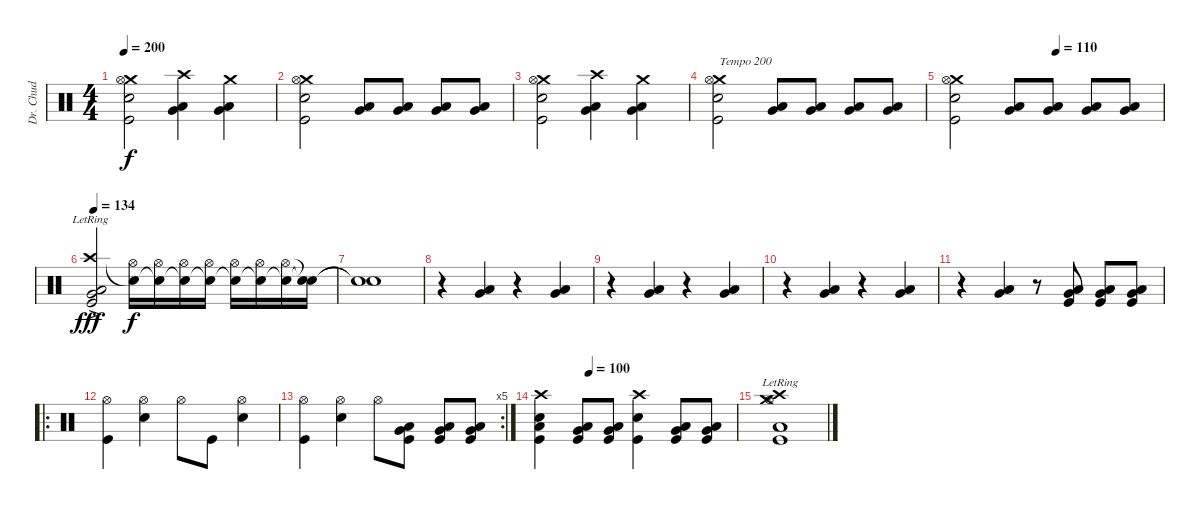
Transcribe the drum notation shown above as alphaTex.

\track ("Dr. Chud" "Dr. Chud") {instrument percussion}
\staff {score}
\articulation defaults
\ts (4 4)
\tempo 200
\clef neutral
\ks c
("Crash medium (hit)" "Hi-Hat (open)" "Snare (hit) 2" "Kick (hit)").2{dy f} ("Crash high (hit)" "Very Low Tom (hit)" "Low Floor Tom (hit)").4 ("Crash medium (hit)" "Very Low Tom (hit)" "Low Floor Tom (hit)").4 |
("Crash medium (hit)" "Hi-Hat (open)" "Snare (hit) 2" "Kick (hit)").2 ("Very Low Tom (hit)" "Low Floor Tom (hit)").8 ("Very Low Tom (hit)" "Low Floor Tom (hit)").8 ("Very Low Tom (hit)" "Low Floor Tom (hit)").8 ("Very Low Tom (hit)" "Low Floor Tom (hit)").8 |
("Crash medium (hit)" "Hi-Hat (open)" "Snare (hit) 2" "Kick (hit)").2 ("Crash high (hit)" "Very Low Tom (hit)" "Low Floor Tom (hit)").4 ("Crash medium (hit)" "Very Low Tom (hit)" "Low Floor Tom (hit)").4 |
("Crash medium (hit)" "Hi-Hat (open)" "Snare (hit) 2" "Kick (hit)").2{txt "Tempo 200"} ("Very Low Tom (hit)" "Low Floor Tom (hit)").8 ("Very Low Tom (hit)" "Low Floor Tom (hit)").8 ("Very Low Tom (hit)" "Low Floor Tom (hit)").8 ("Very Low Tom (hit)" "Low Floor Tom (hit)").8 |
\tempo (110 0.5)
("Crash medium (hit)" "Hi-Hat (open)" "Snare (hit) 2" "Kick (hit)").2 ("Very Low Tom (hit)" "Low Floor Tom (hit)").8 ("Very Low Tom (hit)" "Low Floor Tom (hit)").8 ("Very Low Tom (hit)" "Low Floor Tom (hit)").8 ("Very Low Tom (hit)" "Low Floor Tom (hit)").8 |
\tempo 134
("Crash high (hit)"{ac lr} "Very Low Tom (hit)"{ac} "Low Floor Tom (hit)"{ac} "Kick (hit)"{ac}).2{dy fff} ("Snare (hit)"{t} "Hi-Hat (open)").16{dy f} ("Snare (hit)"{t} "Hi-Hat (open)").16 ("Snare (hit)"{t} "Hi-Hat (open)").16 ("Snare (hit)"{t} "Hi-Hat (open)").16 ("Snare (hit)"{t} "Hi-Hat (open)").16 ("Snare (hit)"{t} "Hi-Hat (open)").16 ("Snare (hit)"{t} "Hi-Hat (open)").16 ("Snare (hit)"{t} "Snare (hit)"{t}).16 |
("Snare (hit)"{t} "Snare (hit)"{t}).1 |
r.4 ("Very Low Tom (hit)" "Low Floor Tom (hit)").4 r.4 ("Very Low Tom (hit)" "Low Floor Tom (hit)").4 |
r.4 ("Very Low Tom (hit)" "Low Floor Tom (hit)").4 r.4 ("Very Low Tom (hit)" "Low Floor Tom (hit)").4 |
r.4 ("Very Low Tom (hit)" "Low Floor Tom (hit)").4 r.4 ("Very Low Tom (hit)" "Low Floor Tom (hit)").4 |
r.4 ("Very Low Tom (hit)" "Low Floor Tom (hit)").4 r.8 ("Very Low Tom (hit)" "Low Floor Tom (hit)" "Kick (hit)").8 ("Very Low Tom (hit)" "Low Floor Tom (hit)" "Kick (hit)").8 ("Very Low Tom (hit)" "Low Floor Tom (hit)" "Kick (hit)").8 |
\ro
("Hi-Hat (open)" "Kick (hit)").4 ("Hi-Hat (open)" "Snare (hit) 2").4 "Hi-Hat (open)".8 "Kick (hit)".8 ("Hi-Hat (open)" "Snare (hit) 2").4 |
\rc 5
("Hi-Hat (open)" "Kick (hit)").4 ("Hi-Hat (open)" "Snare (hit) 2").4 "Hi-Hat (open)".8 ("Very Low Tom (hit)" "Low Floor Tom (hit)" "Kick (hit)").8 ("Very Low Tom (hit)" "Low Floor Tom (hit)" "Kick (hit)").8 ("Very Low Tom (hit)" "Low Floor Tom (hit)" "Kick (hit)").8 |
\tempo (100 0.25)
("Crash high (hit)" "Low Floor Tom (hit)" "Snare (hit) 2" "Kick (hit)").4 ("Very Low Tom (hit)" "Low Floor Tom (hit)" "Kick (hit)").8 ("Very Low Tom (hit)" "Low Floor Tom (hit)" "Kick (hit)").8 ("Crash high (hit)" "Snare (hit) 2" "Kick (hit)").4 ("Very Low Tom (hit)" "Low Floor Tom (hit)" "Kick (hit)").8 ("Very Low Tom (hit)" "Low Floor Tom (hit)" "Kick (hit)").8 |
("Crash medium (hit)"{lr} "Crash high (hit)"{lr} "Hi-Hat (open)"{lr} "Low Floor Tom (hit)"{lr} "Kick (hit)"{lr}).1
